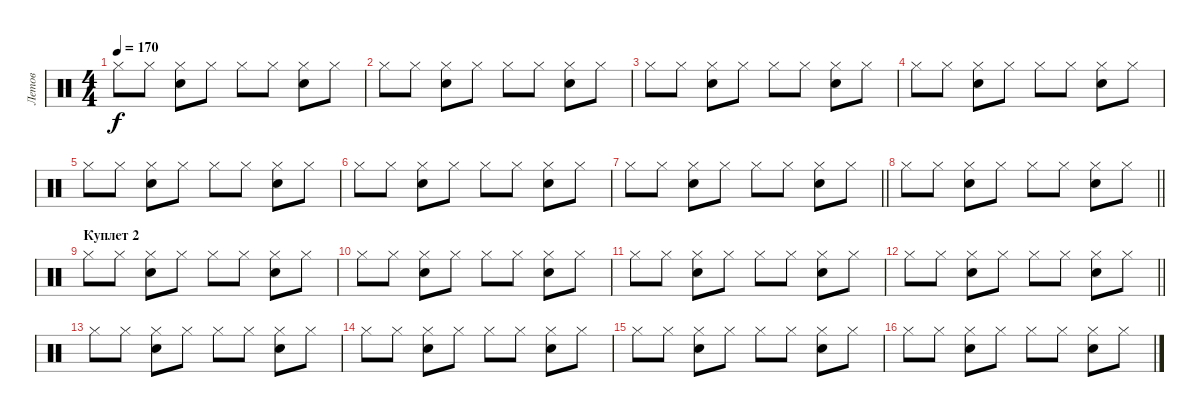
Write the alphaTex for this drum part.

\track ("Летов" "Летов") {instrument percussion}
\staff {score}
\articulation defaults
\ts (4 4)
\tempo 170
\clef neutral
\ks c "Hi-Hat (closed)".8{dy f} "Hi-Hat (closed)".8
("Hi-Hat (closed)" "Electric Snare (hit)").8 "Hi-Hat (closed)".8 "Hi-Hat (closed)".8 "Hi-Hat (closed)".8 ("Hi-Hat (closed)" "Electric Snare (hit)").8 "Hi-Hat (closed)".8 |
"Hi-Hat (closed)".8 "Hi-Hat (closed)".8 ("Hi-Hat (closed)" "Electric Snare (hit)").8 "Hi-Hat (closed)".8 "Hi-Hat (closed)".8 "Hi-Hat (closed)".8 ("Hi-Hat (closed)" "Electric Snare (hit)").8 "Hi-Hat (closed)".8 |
"Hi-Hat (closed)".8 "Hi-Hat (closed)".8 ("Hi-Hat (closed)" "Electric Snare (hit)").8 "Hi-Hat (closed)".8 "Hi-Hat (closed)".8 "Hi-Hat (closed)".8 ("Hi-Hat (closed)" "Electric Snare (hit)").8 "Hi-Hat (closed)".8 |
"Hi-Hat (closed)".8 "Hi-Hat (closed)".8 ("Hi-Hat (closed)" "Electric Snare (hit)").8 "Hi-Hat (closed)".8 "Hi-Hat (closed)".8 "Hi-Hat (closed)".8 ("Hi-Hat (closed)" "Electric Snare (hit)").8 "Hi-Hat (closed)".8 |
"Hi-Hat (closed)".8 "Hi-Hat (closed)".8 ("Hi-Hat (closed)" "Electric Snare (hit)").8 "Hi-Hat (closed)".8 "Hi-Hat (closed)".8 "Hi-Hat (closed)".8 ("Hi-Hat (closed)" "Electric Snare (hit)").8 "Hi-Hat (closed)".8 |
"Hi-Hat (closed)".8 "Hi-Hat (closed)".8 ("Hi-Hat (closed)" "Electric Snare (hit)").8 "Hi-Hat (closed)".8 "Hi-Hat (closed)".8 "Hi-Hat (closed)".8 ("Hi-Hat (closed)" "Electric Snare (hit)").8 "Hi-Hat (closed)".8 |
\barLineRight lightlight "Hi-Hat (closed)".8 "Hi-Hat (closed)".8
("Hi-Hat (closed)" "Electric Snare (hit)").8 "Hi-Hat (closed)".8 "Hi-Hat (closed)".8 "Hi-Hat (closed)".8 ("Hi-Hat (closed)" "Electric Snare (hit)").8 "Hi-Hat (closed)".8 |
\section ("" "")
\barLineRight lightlight "Hi-Hat (closed)".8 "Hi-Hat (closed)".8
("Hi-Hat (closed)" "Electric Snare (hit)").8 "Hi-Hat (closed)".8 "Hi-Hat (closed)".8 "Hi-Hat (closed)".8 ("Hi-Hat (closed)" "Electric Snare (hit)").8 "Hi-Hat (closed)".8 |
\section ("" "Куплет 2")
"Hi-Hat (closed)".8 "Hi-Hat (closed)".8 ("Hi-Hat (closed)" "Electric Snare (hit)").8 "Hi-Hat (closed)".8 "Hi-Hat (closed)".8 "Hi-Hat (closed)".8 ("Hi-Hat (closed)" "Electric Snare (hit)").8 "Hi-Hat (closed)".8 |
"Hi-Hat (closed)".8 "Hi-Hat (closed)".8 ("Hi-Hat (closed)" "Electric Snare (hit)").8 "Hi-Hat (closed)".8 "Hi-Hat (closed)".8 "Hi-Hat (closed)".8 ("Hi-Hat (closed)" "Electric Snare (hit)").8 "Hi-Hat (closed)".8 |
"Hi-Hat (closed)".8 "Hi-Hat (closed)".8 ("Hi-Hat (closed)" "Electric Snare (hit)").8 "Hi-Hat (closed)".8 "Hi-Hat (closed)".8 "Hi-Hat (closed)".8 ("Hi-Hat (closed)" "Electric Snare (hit)").8 "Hi-Hat (closed)".8 |
\barLineRight lightlight "Hi-Hat (closed)".8 "Hi-Hat (closed)".8
("Hi-Hat (closed)" "Electric Snare (hit)").8 "Hi-Hat (closed)".8 "Hi-Hat (closed)".8 "Hi-Hat (closed)".8 ("Hi-Hat (closed)" "Electric Snare (hit)").8 "Hi-Hat (closed)".8 |
\section ("" "")
"Hi-Hat (closed)".8 "Hi-Hat (closed)".8 ("Hi-Hat (closed)" "Electric Snare (hit)").8 "Hi-Hat (closed)".8 "Hi-Hat (closed)".8 "Hi-Hat (closed)".8 ("Hi-Hat (closed)" "Electric Snare (hit)").8 "Hi-Hat (closed)".8 |
"Hi-Hat (closed)".8 "Hi-Hat (closed)".8 ("Hi-Hat (closed)" "Electric Snare (hit)").8 "Hi-Hat (closed)".8 "Hi-Hat (closed)".8 "Hi-Hat (closed)".8 ("Hi-Hat (closed)" "Electric Snare (hit)").8 "Hi-Hat (closed)".8 |
"Hi-Hat (closed)".8 "Hi-Hat (closed)".8 ("Hi-Hat (closed)" "Electric Snare (hit)").8 "Hi-Hat (closed)".8 "Hi-Hat (closed)".8 "Hi-Hat (closed)".8 ("Hi-Hat (closed)" "Electric Snare (hit)").8 "Hi-Hat (closed)".8 |
"Hi-Hat (closed)".8 "Hi-Hat (closed)".8 ("Hi-Hat (closed)" "Electric Snare (hit)").8 "Hi-Hat (closed)".8 "Hi-Hat (closed)".8 "Hi-Hat (closed)".8 ("Hi-Hat (closed)" "Electric Snare (hit)").8 "Hi-Hat (closed)".8
